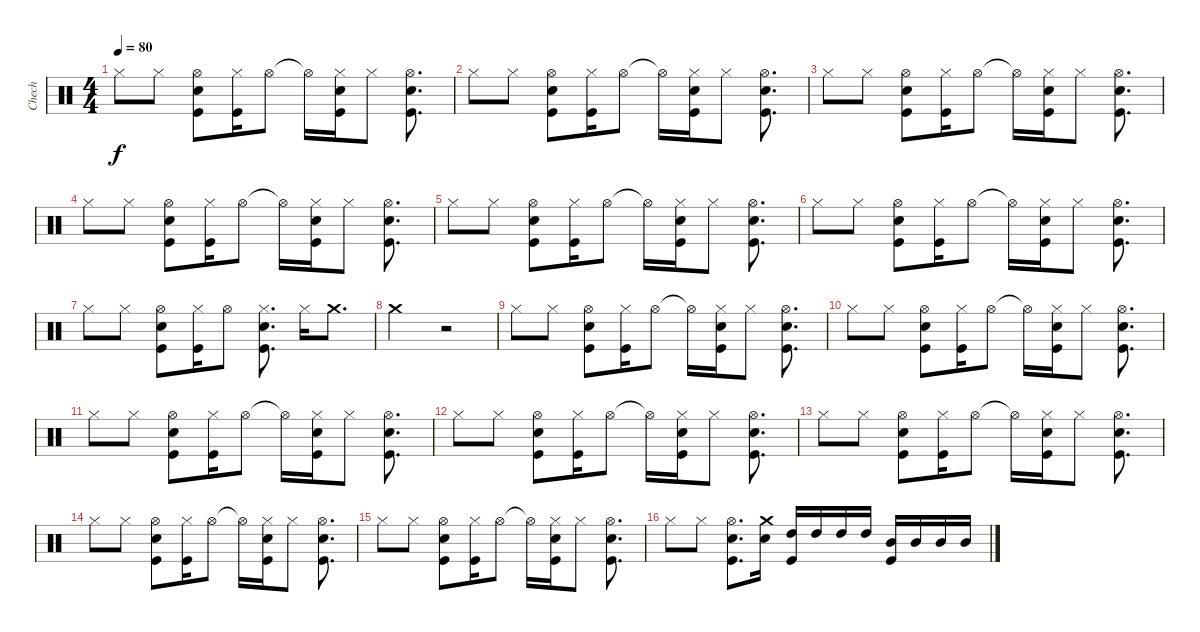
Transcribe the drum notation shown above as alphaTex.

\track ("Chech" "Chech") {instrument percussion}
\staff {score}
\articulation defaults
\ts (4 4)
\tempo 80
\clef neutral
\ks c "Hi-Hat (closed)".8{dy f} "Hi-Hat (closed)".8
("Hi-Hat (open)" "Electric Snare (hit)" "Kick (hit)").8 ("Hi-Hat (closed)" "Kick (hit)").16 "Hi-Hat (open)".8 "Hi-Hat (open)"{t}.16 ("Hi-Hat (closed)" "Electric Snare (hit)" "Kick (hit)").16 "Hi-Hat (closed)".8 ("Hi-Hat (open)" "Electric Snare (hit)" "Kick (hit)").8{d} |
"Hi-Hat (closed)".8 "Hi-Hat (closed)".8 ("Hi-Hat (open)" "Electric Snare (hit)" "Kick (hit)").8 ("Hi-Hat (closed)" "Kick (hit)").16 "Hi-Hat (open)".8 "Hi-Hat (open)"{t}.16 ("Hi-Hat (closed)" "Electric Snare (hit)" "Kick (hit)").16 "Hi-Hat (closed)".8 ("Hi-Hat (open)" "Electric Snare (hit)" "Kick (hit)").8{d} |
"Hi-Hat (closed)".8 "Hi-Hat (closed)".8 ("Hi-Hat (open)" "Electric Snare (hit)" "Kick (hit)").8 ("Hi-Hat (closed)" "Kick (hit)").16 "Hi-Hat (open)".8 "Hi-Hat (open)"{t}.16 ("Hi-Hat (closed)" "Electric Snare (hit)" "Kick (hit)").16 "Hi-Hat (closed)".8 ("Hi-Hat (open)" "Electric Snare (hit)" "Kick (hit)").8{d} |
"Hi-Hat (closed)".8 "Hi-Hat (closed)".8 ("Hi-Hat (open)" "Electric Snare (hit)" "Kick (hit)").8 ("Hi-Hat (closed)" "Kick (hit)").16 "Hi-Hat (open)".8 "Hi-Hat (open)"{t}.16 ("Hi-Hat (closed)" "Electric Snare (hit)" "Kick (hit)").16 "Hi-Hat (closed)".8 ("Hi-Hat (open)" "Electric Snare (hit)" "Kick (hit)").8{d} |
"Hi-Hat (closed)".8 "Hi-Hat (closed)".8 ("Hi-Hat (open)" "Electric Snare (hit)" "Kick (hit)").8 ("Hi-Hat (closed)" "Kick (hit)").16 "Hi-Hat (open)".8 "Hi-Hat (open)"{t}.16 ("Hi-Hat (closed)" "Electric Snare (hit)" "Kick (hit)").16 "Hi-Hat (closed)".8 ("Hi-Hat (open)" "Electric Snare (hit)" "Kick (hit)").8{d} |
"Hi-Hat (closed)".8 "Hi-Hat (closed)".8 ("Hi-Hat (open)" "Electric Snare (hit)" "Kick (hit)").8 ("Hi-Hat (closed)" "Kick (hit)").16 "Hi-Hat (open)".8 "Hi-Hat (open)"{t}.16 ("Hi-Hat (closed)" "Electric Snare (hit)" "Kick (hit)").16 "Hi-Hat (closed)".8 ("Hi-Hat (open)" "Electric Snare (hit)" "Kick (hit)").8{d} |
"Hi-Hat (closed)".8 "Hi-Hat (closed)".8 ("Hi-Hat (open)" "Electric Snare (hit)" "Kick (hit)").8 ("Hi-Hat (closed)" "Kick (hit)").16 "Hi-Hat (open)".8 ("Hi-Hat (closed)" "Electric Snare (hit)" "Kick (hit)").8{d} "Hi-Hat (closed)".16 "Crash medium (hit)".8{d} |
"Crash medium (hit)".2 r.2 |
"Hi-Hat (closed)".8 "Hi-Hat (closed)".8 ("Hi-Hat (open)" "Electric Snare (hit)" "Kick (hit)").8 ("Hi-Hat (closed)" "Kick (hit)").16 "Hi-Hat (open)".8 "Hi-Hat (open)"{t}.16 ("Hi-Hat (closed)" "Electric Snare (hit)" "Kick (hit)").16 "Hi-Hat (closed)".8 ("Hi-Hat (open)" "Electric Snare (hit)" "Kick (hit)").8{d} |
"Hi-Hat (closed)".8 "Hi-Hat (closed)".8 ("Hi-Hat (open)" "Electric Snare (hit)" "Kick (hit)").8 ("Hi-Hat (closed)" "Kick (hit)").16 "Hi-Hat (open)".8 "Hi-Hat (open)"{t}.16 ("Hi-Hat (closed)" "Electric Snare (hit)" "Kick (hit)").16 "Hi-Hat (closed)".8 ("Hi-Hat (open)" "Electric Snare (hit)" "Kick (hit)").8{d} |
"Hi-Hat (closed)".8 "Hi-Hat (closed)".8 ("Hi-Hat (open)" "Electric Snare (hit)" "Kick (hit)").8 ("Hi-Hat (closed)" "Kick (hit)").16 "Hi-Hat (open)".8 "Hi-Hat (open)"{t}.16 ("Hi-Hat (closed)" "Electric Snare (hit)" "Kick (hit)").16 "Hi-Hat (closed)".8 ("Hi-Hat (open)" "Electric Snare (hit)" "Kick (hit)").8{d} |
"Hi-Hat (closed)".8 "Hi-Hat (closed)".8 ("Hi-Hat (open)" "Electric Snare (hit)" "Kick (hit)").8 ("Hi-Hat (closed)" "Kick (hit)").16 "Hi-Hat (open)".8 "Hi-Hat (open)"{t}.16 ("Hi-Hat (closed)" "Electric Snare (hit)" "Kick (hit)").16 "Hi-Hat (closed)".8 ("Hi-Hat (open)" "Electric Snare (hit)" "Kick (hit)").8{d} |
"Hi-Hat (closed)".8 "Hi-Hat (closed)".8 ("Hi-Hat (open)" "Electric Snare (hit)" "Kick (hit)").8 ("Hi-Hat (closed)" "Kick (hit)").16 "Hi-Hat (open)".8 "Hi-Hat (open)"{t}.16 ("Hi-Hat (closed)" "Electric Snare (hit)" "Kick (hit)").16 "Hi-Hat (closed)".8 ("Hi-Hat (open)" "Electric Snare (hit)" "Kick (hit)").8{d} |
"Hi-Hat (closed)".8 "Hi-Hat (closed)".8 ("Hi-Hat (open)" "Electric Snare (hit)" "Kick (hit)").8 ("Hi-Hat (closed)" "Kick (hit)").16 "Hi-Hat (open)".8 "Hi-Hat (open)"{t}.16 ("Hi-Hat (closed)" "Electric Snare (hit)" "Kick (hit)").16 "Hi-Hat (closed)".8 ("Hi-Hat (open)" "Electric Snare (hit)" "Kick (hit)").8{d} |
"Hi-Hat (closed)".8 "Hi-Hat (closed)".8 ("Hi-Hat (open)" "Electric Snare (hit)" "Kick (hit)").8 ("Hi-Hat (closed)" "Kick (hit)").16 "Hi-Hat (open)".8 "Hi-Hat (open)"{t}.16 ("Hi-Hat (closed)" "Electric Snare (hit)" "Kick (hit)").16 "Hi-Hat (closed)".8 ("Hi-Hat (open)" "Electric Snare (hit)" "Kick (hit)").8{d} |
"Hi-Hat (closed)".8 "Hi-Hat (closed)".8 ("Hi-Hat (open)" "Electric Snare (hit)" "Kick (hit)").8{d} ("Crash medium (hit)" "Electric Snare (hit)").16 ("High Tom (hit)" "Kick (hit)").16 "High Tom (hit)".16 "High Tom (hit)".16 "High Tom (hit)".16 ("Mid Tom (hit)" "Kick (hit)").16 "Mid Tom (hit)".16 "Mid Tom (hit)".16 "Mid Tom (hit)".16
